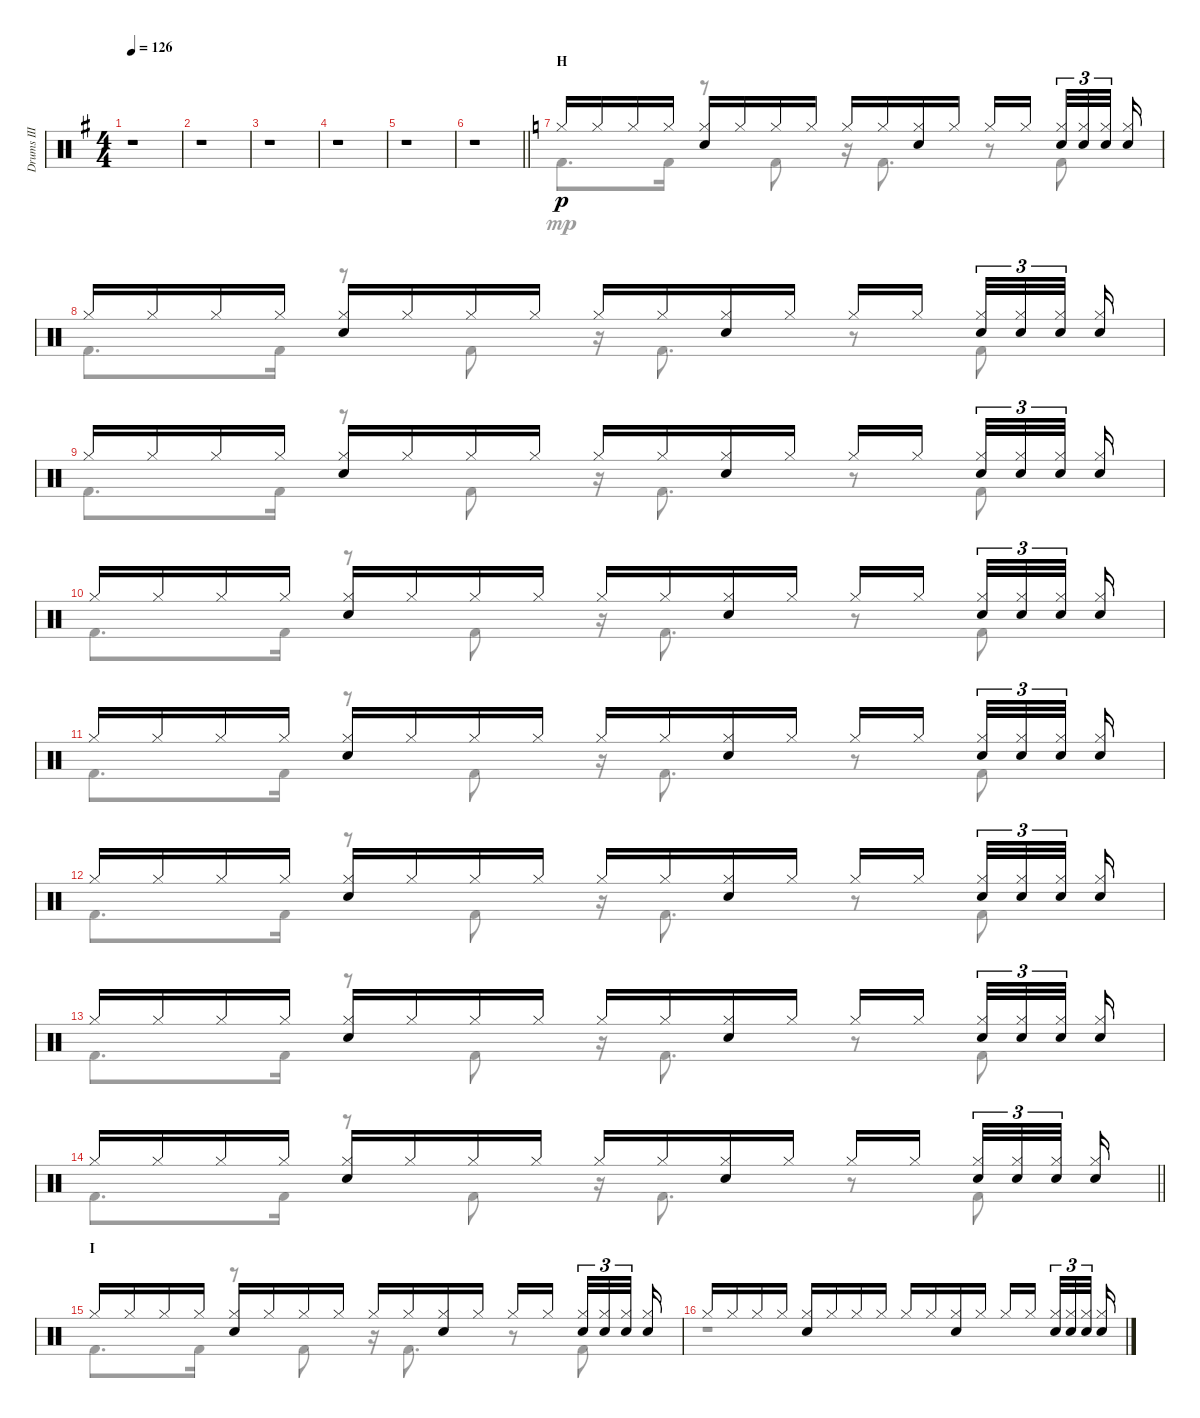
\track ("Drums III" "Drums III") {instrument percussion}
\staff {score}
\articulation defaults
\voice
\ts (4 4)
\tempo 126
\clef neutral
\ks g
r.1{dy p} |
r.1 |
r.1 |
r.1 |
r.1 |
\barLineRight lightlight
r.1 |
\section ("" "H")
\ks c "Hi-Hat (closed)".16 "Hi-Hat (closed)".16 "Hi-Hat (closed)".16 "Hi-Hat (closed)".16
("Hi-Hat (closed)" "Electric Snare (hit)").16 "Hi-Hat (closed)".16 "Hi-Hat (closed)".16 "Hi-Hat (closed)".16 "Hi-Hat (closed)".16 "Hi-Hat (closed)".16 ("Hi-Hat (closed)" "Electric Snare (hit)").16 "Hi-Hat (closed)".16 "Hi-Hat (closed)".16 "Hi-Hat (closed)".16{beam splitsecondary} ("Hi-Hat (closed)" "Electric Snare (hit)").32{tu (3 2)} ("Hi-Hat (closed)" "Electric Snare (hit)").32{tu (3 2)} ("Hi-Hat (closed)" "Electric Snare (hit)").32{tu (3 2) beam splitsecondary} ("Hi-Hat (closed)" "Electric Snare (hit)").16 |
"Hi-Hat (closed)".16 "Hi-Hat (closed)".16 "Hi-Hat (closed)".16 "Hi-Hat (closed)".16 ("Hi-Hat (closed)" "Electric Snare (hit)").16 "Hi-Hat (closed)".16 "Hi-Hat (closed)".16 "Hi-Hat (closed)".16 "Hi-Hat (closed)".16 "Hi-Hat (closed)".16 ("Hi-Hat (closed)" "Electric Snare (hit)").16 "Hi-Hat (closed)".16 "Hi-Hat (closed)".16 "Hi-Hat (closed)".16{beam splitsecondary} ("Hi-Hat (closed)" "Electric Snare (hit)").32{tu (3 2)} ("Hi-Hat (closed)" "Electric Snare (hit)").32{tu (3 2)} ("Hi-Hat (closed)" "Electric Snare (hit)").32{tu (3 2) beam splitsecondary} ("Hi-Hat (closed)" "Electric Snare (hit)").16 |
"Hi-Hat (closed)".16 "Hi-Hat (closed)".16 "Hi-Hat (closed)".16 "Hi-Hat (closed)".16 ("Hi-Hat (closed)" "Electric Snare (hit)").16 "Hi-Hat (closed)".16 "Hi-Hat (closed)".16 "Hi-Hat (closed)".16 "Hi-Hat (closed)".16 "Hi-Hat (closed)".16 ("Hi-Hat (closed)" "Electric Snare (hit)").16 "Hi-Hat (closed)".16 "Hi-Hat (closed)".16 "Hi-Hat (closed)".16{beam splitsecondary} ("Hi-Hat (closed)" "Electric Snare (hit)").32{tu (3 2)} ("Hi-Hat (closed)" "Electric Snare (hit)").32{tu (3 2)} ("Hi-Hat (closed)" "Electric Snare (hit)").32{tu (3 2) beam splitsecondary} ("Hi-Hat (closed)" "Electric Snare (hit)").16 |
"Hi-Hat (closed)".16 "Hi-Hat (closed)".16 "Hi-Hat (closed)".16 "Hi-Hat (closed)".16 ("Hi-Hat (closed)" "Electric Snare (hit)").16 "Hi-Hat (closed)".16 "Hi-Hat (closed)".16 "Hi-Hat (closed)".16 "Hi-Hat (closed)".16 "Hi-Hat (closed)".16 ("Hi-Hat (closed)" "Electric Snare (hit)").16 "Hi-Hat (closed)".16 "Hi-Hat (closed)".16 "Hi-Hat (closed)".16{beam splitsecondary} ("Hi-Hat (closed)" "Electric Snare (hit)").32{tu (3 2)} ("Hi-Hat (closed)" "Electric Snare (hit)").32{tu (3 2)} ("Hi-Hat (closed)" "Electric Snare (hit)").32{tu (3 2) beam splitsecondary} ("Hi-Hat (closed)" "Electric Snare (hit)").16 |
"Hi-Hat (closed)".16 "Hi-Hat (closed)".16 "Hi-Hat (closed)".16 "Hi-Hat (closed)".16 ("Hi-Hat (closed)" "Electric Snare (hit)").16 "Hi-Hat (closed)".16 "Hi-Hat (closed)".16 "Hi-Hat (closed)".16 "Hi-Hat (closed)".16 "Hi-Hat (closed)".16 ("Hi-Hat (closed)" "Electric Snare (hit)").16 "Hi-Hat (closed)".16 "Hi-Hat (closed)".16 "Hi-Hat (closed)".16{beam splitsecondary} ("Hi-Hat (closed)" "Electric Snare (hit)").32{tu (3 2)} ("Hi-Hat (closed)" "Electric Snare (hit)").32{tu (3 2)} ("Hi-Hat (closed)" "Electric Snare (hit)").32{tu (3 2) beam splitsecondary} ("Hi-Hat (closed)" "Electric Snare (hit)").16 |
"Hi-Hat (closed)".16 "Hi-Hat (closed)".16 "Hi-Hat (closed)".16 "Hi-Hat (closed)".16 ("Hi-Hat (closed)" "Electric Snare (hit)").16 "Hi-Hat (closed)".16 "Hi-Hat (closed)".16 "Hi-Hat (closed)".16 "Hi-Hat (closed)".16 "Hi-Hat (closed)".16 ("Hi-Hat (closed)" "Electric Snare (hit)").16 "Hi-Hat (closed)".16 "Hi-Hat (closed)".16 "Hi-Hat (closed)".16{beam splitsecondary} ("Hi-Hat (closed)" "Electric Snare (hit)").32{tu (3 2)} ("Hi-Hat (closed)" "Electric Snare (hit)").32{tu (3 2)} ("Hi-Hat (closed)" "Electric Snare (hit)").32{tu (3 2) beam splitsecondary} ("Hi-Hat (closed)" "Electric Snare (hit)").16 |
"Hi-Hat (closed)".16 "Hi-Hat (closed)".16 "Hi-Hat (closed)".16 "Hi-Hat (closed)".16 ("Hi-Hat (closed)" "Electric Snare (hit)").16 "Hi-Hat (closed)".16 "Hi-Hat (closed)".16 "Hi-Hat (closed)".16 "Hi-Hat (closed)".16 "Hi-Hat (closed)".16 ("Hi-Hat (closed)" "Electric Snare (hit)").16 "Hi-Hat (closed)".16 "Hi-Hat (closed)".16 "Hi-Hat (closed)".16{beam splitsecondary} ("Hi-Hat (closed)" "Electric Snare (hit)").32{tu (3 2)} ("Hi-Hat (closed)" "Electric Snare (hit)").32{tu (3 2)} ("Hi-Hat (closed)" "Electric Snare (hit)").32{tu (3 2) beam splitsecondary} ("Hi-Hat (closed)" "Electric Snare (hit)").16 |
\barLineRight lightlight "Hi-Hat (closed)".16 "Hi-Hat (closed)".16 "Hi-Hat (closed)".16 "Hi-Hat (closed)".16
("Hi-Hat (closed)" "Electric Snare (hit)").16 "Hi-Hat (closed)".16 "Hi-Hat (closed)".16 "Hi-Hat (closed)".16 "Hi-Hat (closed)".16 "Hi-Hat (closed)".16 ("Hi-Hat (closed)" "Electric Snare (hit)").16 "Hi-Hat (closed)".16 "Hi-Hat (closed)".16 "Hi-Hat (closed)".16{beam splitsecondary} ("Hi-Hat (closed)" "Electric Snare (hit)").32{tu (3 2)} ("Hi-Hat (closed)" "Electric Snare (hit)").32{tu (3 2)} ("Hi-Hat (closed)" "Electric Snare (hit)").32{tu (3 2) beam splitsecondary} ("Hi-Hat (closed)" "Electric Snare (hit)").16 |
\section ("" "I")
"Hi-Hat (closed)".16 "Hi-Hat (closed)".16 "Hi-Hat (closed)".16 "Hi-Hat (closed)".16 ("Hi-Hat (closed)" "Electric Snare (hit)").16 "Hi-Hat (closed)".16 "Hi-Hat (closed)".16 "Hi-Hat (closed)".16 "Hi-Hat (closed)".16 "Hi-Hat (closed)".16 ("Hi-Hat (closed)" "Electric Snare (hit)").16 "Hi-Hat (closed)".16 "Hi-Hat (closed)".16 "Hi-Hat (closed)".16{beam splitsecondary} ("Hi-Hat (closed)" "Electric Snare (hit)").32{tu (3 2)} ("Hi-Hat (closed)" "Electric Snare (hit)").32{tu (3 2)} ("Hi-Hat (closed)" "Electric Snare (hit)").32{tu (3 2) beam splitsecondary} ("Hi-Hat (closed)" "Electric Snare (hit)").16 |
"Hi-Hat (closed)".16 "Hi-Hat (closed)".16 "Hi-Hat (closed)".16 "Hi-Hat (closed)".16 ("Hi-Hat (closed)" "Electric Snare (hit)").16 "Hi-Hat (closed)".16 "Hi-Hat (closed)".16 "Hi-Hat (closed)".16 "Hi-Hat (closed)".16 "Hi-Hat (closed)".16 ("Hi-Hat (closed)" "Electric Snare (hit)").16 "Hi-Hat (closed)".16 "Hi-Hat (closed)".16 "Hi-Hat (closed)".16{beam splitsecondary} ("Hi-Hat (closed)" "Electric Snare (hit)").32{tu (3 2)} ("Hi-Hat (closed)" "Electric Snare (hit)").32{tu (3 2)} ("Hi-Hat (closed)" "Electric Snare (hit)").32{tu (3 2) beam splitsecondary} ("Hi-Hat (closed)" "Electric Snare (hit)").16
\voice
\clef neutral
\ottava regular
\simile none
\ks g
r.1{dy mp} |
r.1 |
r.1 |
r.1 |
r.1 |
\barLineRight lightlight
r.1 |
\ks c "Kick (hit) 2".8{d} "Kick (hit) 2".16
r.8 "Kick (hit) 2".8 r.16 "Kick (hit) 2".8{d} r.8 "Kick (hit) 2".8 |
"Kick (hit) 2".8{d} "Kick (hit) 2".16 r.8 "Kick (hit) 2".8 r.16 "Kick (hit) 2".8{d} r.8 "Kick (hit) 2".8 |
"Kick (hit) 2".8{d} "Kick (hit) 2".16 r.8 "Kick (hit) 2".8 r.16 "Kick (hit) 2".8{d} r.8 "Kick (hit) 2".8 |
"Kick (hit) 2".8{d} "Kick (hit) 2".16 r.8 "Kick (hit) 2".8 r.16 "Kick (hit) 2".8{d} r.8 "Kick (hit) 2".8 |
"Kick (hit) 2".8{d} "Kick (hit) 2".16 r.8 "Kick (hit) 2".8 r.16 "Kick (hit) 2".8{d} r.8 "Kick (hit) 2".8 |
"Kick (hit) 2".8{d} "Kick (hit) 2".16 r.8 "Kick (hit) 2".8 r.16 "Kick (hit) 2".8{d} r.8 "Kick (hit) 2".8 |
"Kick (hit) 2".8{d} "Kick (hit) 2".16 r.8 "Kick (hit) 2".8 r.16 "Kick (hit) 2".8{d} r.8 "Kick (hit) 2".8 |
\barLineRight lightlight "Kick (hit) 2".8{d} "Kick (hit) 2".16
r.8 "Kick (hit) 2".8 r.16 "Kick (hit) 2".8{d} r.8 "Kick (hit) 2".8 |
"Kick (hit) 2".8{d} "Kick (hit) 2".16 r.8 "Kick (hit) 2".8 r.16 "Kick (hit) 2".8{d} r.8 "Kick (hit) 2".8 |
r.1
